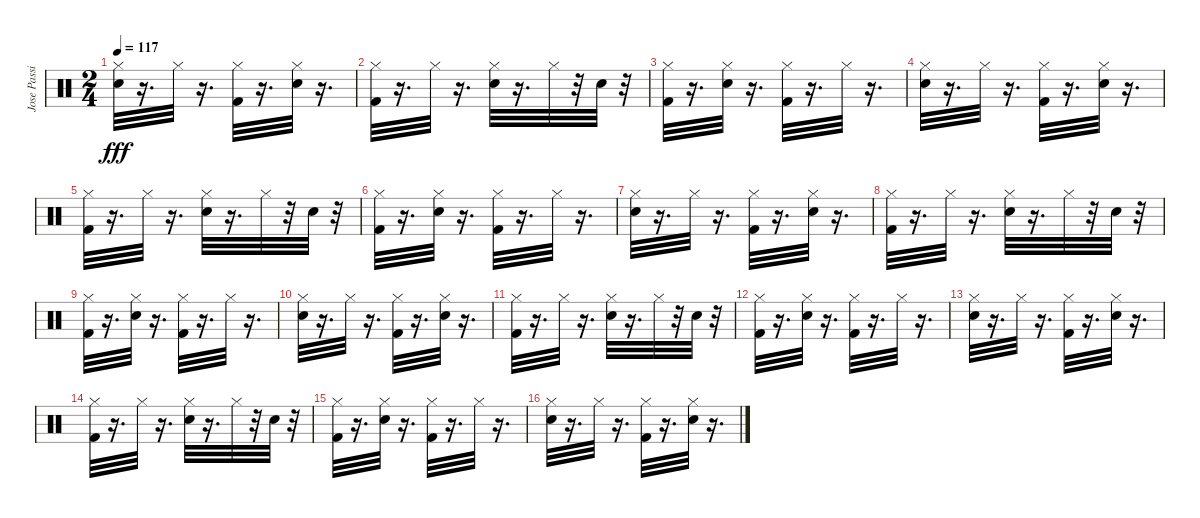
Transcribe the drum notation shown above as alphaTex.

\track ("Jose Passilas-drums" "Jose Passi") {instrument percussion}
\staff {score}
\articulation defaults
\ts (2 4)
\tempo 117
\clef neutral
\ks c
("Electric Snare (hit)" "Hi-Hat (closed)").32{dy fff} r.16{d} "Hi-Hat (closed)".32 r.16{d} ("Hi-Hat (closed)" "Kick (hit) 2").32 r.16{d} ("Electric Snare (hit)" "Hi-Hat (closed)").32 r.16{d} |
("Kick (hit) 2" "Hi-Hat (closed)").32 r.16{d} "Hi-Hat (closed)".32 r.16{d} ("Electric Snare (hit)" "Hi-Hat (closed)").32 r.16{d} "Hi-Hat (closed)".32 r.32 "Electric Snare (hit)".32 r.32 |
("Kick (hit) 2" "Hi-Hat (closed)").32 r.16{d} ("Electric Snare (hit)" "Hi-Hat (closed)").32 r.16{d} ("Kick (hit) 2" "Hi-Hat (closed)").32 r.16{d} "Hi-Hat (closed)".32 r.16{d} |
("Electric Snare (hit)" "Hi-Hat (closed)").32 r.16{d} "Hi-Hat (closed)".32 r.16{d} ("Kick (hit) 2" "Hi-Hat (closed)").32 r.16{d} ("Electric Snare (hit)" "Hi-Hat (closed)").32 r.16{d} |
("Hi-Hat (closed)" "Kick (hit) 2").32 r.16{d} "Hi-Hat (closed)".32 r.16{d} ("Electric Snare (hit)" "Hi-Hat (closed)").32 r.16{d} "Hi-Hat (closed)".32 r.32 "Electric Snare (hit)".32 r.32 |
("Hi-Hat (closed)" "Kick (hit) 2").32 r.16{d} ("Electric Snare (hit)" "Hi-Hat (closed)").32 r.16{d} ("Hi-Hat (closed)" "Kick (hit) 2").32 r.16{d} "Hi-Hat (closed)".32 r.16{d} |
("Electric Snare (hit)" "Hi-Hat (closed)").32 r.16{d} "Hi-Hat (closed)".32 r.16{d} ("Hi-Hat (closed)" "Kick (hit) 2").32 r.16{d} ("Electric Snare (hit)" "Hi-Hat (closed)").32 r.16{d} |
("Kick (hit) 2" "Hi-Hat (closed)").32 r.16{d} "Hi-Hat (closed)".32 r.16{d} ("Electric Snare (hit)" "Hi-Hat (closed)").32 r.16{d} "Hi-Hat (closed)".32 r.32 "Electric Snare (hit)".32 r.32 |
("Kick (hit) 2" "Hi-Hat (closed)").32 r.16{d} ("Electric Snare (hit)" "Hi-Hat (closed)").32 r.16{d} ("Kick (hit) 2" "Hi-Hat (closed)").32 r.16{d} "Hi-Hat (closed)".32 r.16{d} |
("Electric Snare (hit)" "Hi-Hat (closed)").32 r.16{d} "Hi-Hat (closed)".32 r.16{d} ("Kick (hit) 2" "Hi-Hat (closed)").32 r.16{d} ("Electric Snare (hit)" "Hi-Hat (closed)").32 r.16{d} |
("Hi-Hat (closed)" "Kick (hit) 2").32 r.16{d} "Hi-Hat (closed)".32 r.16{d} ("Electric Snare (hit)" "Hi-Hat (closed)").32 r.16{d} "Hi-Hat (closed)".32 r.32 "Electric Snare (hit)".32 r.32 |
("Hi-Hat (closed)" "Kick (hit) 2").32 r.16{d} ("Electric Snare (hit)" "Hi-Hat (closed)").32 r.16{d} ("Hi-Hat (closed)" "Kick (hit) 2").32 r.16{d} "Hi-Hat (closed)".32 r.16{d} |
("Electric Snare (hit)" "Hi-Hat (closed)").32 r.16{d} "Hi-Hat (closed)".32 r.16{d} ("Hi-Hat (closed)" "Kick (hit) 2").32 r.16{d} ("Electric Snare (hit)" "Hi-Hat (closed)").32 r.16{d} |
("Kick (hit) 2" "Hi-Hat (closed)").32 r.16{d} "Hi-Hat (closed)".32 r.16{d} ("Electric Snare (hit)" "Hi-Hat (closed)").32 r.16{d} "Hi-Hat (closed)".32 r.32 "Electric Snare (hit)".32 r.32 |
("Kick (hit) 2" "Hi-Hat (closed)").32 r.16{d} ("Electric Snare (hit)" "Hi-Hat (closed)").32 r.16{d} ("Kick (hit) 2" "Hi-Hat (closed)").32 r.16{d} "Hi-Hat (closed)".32 r.16{d} |
("Electric Snare (hit)" "Hi-Hat (closed)").32 r.16{d} "Hi-Hat (closed)".32 r.16{d} ("Kick (hit) 2" "Hi-Hat (closed)").32 r.16{d} ("Electric Snare (hit)" "Hi-Hat (closed)").32 r.16{d}
